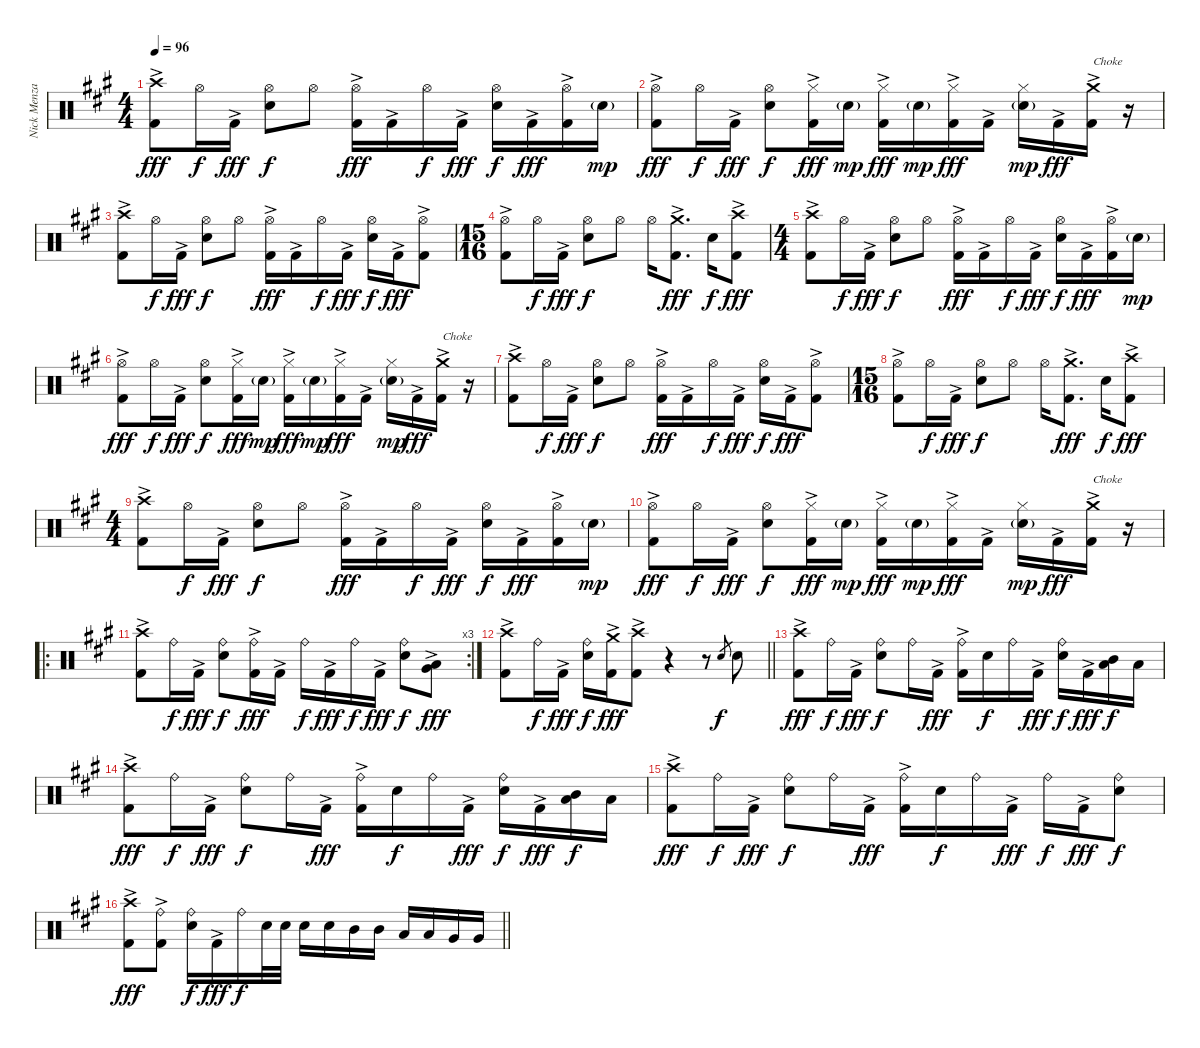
\track ("Nick Menza" "Nick Menza") {instrument percussion}
\staff {score}
\articulation defaults
\ts (4 4)
\tempo 96
\clef neutral
\ks f#minor
("Crash high (hit)" "Kick (hit) 2"{ac}).8{dy fff} "Hi-Hat (open)".16{dy f} "Kick (hit) 2"{ac}.16{dy fff} ("Hi-Hat (open)" "Snare (hit) 2").8{dy f} "Hi-Hat (open)".8 ("Hi-Hat (open)" "Kick (hit) 2"{ac}).16{dy fff} "Kick (hit) 2"{ac}.16 "Hi-Hat (open)".16{dy f} "Kick (hit) 2"{ac}.16{dy fff} ("Hi-Hat (open)" "Snare (hit) 2").16{dy f} "Kick (hit) 2"{ac}.16{dy fff} ("Hi-Hat (open)" "Kick (hit) 2"{ac}).16 "Snare (hit) 2"{g}.16{dy mp} |
("Hi-Hat (open)" "Kick (hit) 2"{ac}).8{dy fff} "Hi-Hat (open)".16{dy f} "Kick (hit) 2"{ac}.16{dy fff} ("Hi-Hat (open)" "Snare (hit) 2").8{dy f} ("Hi-Hat (closed)" "Kick (hit) 2"{ac}).16{dy fff} "Snare (hit) 2"{g}.16{dy mp} ("Hi-Hat (closed)" "Kick (hit) 2"{ac}).16{dy fff} "Snare (hit) 2"{g}.16{dy mp} ("Hi-Hat (closed)" "Kick (hit) 2"{ac}).16{dy fff} "Kick (hit) 2"{ac}.16 ("Hi-Hat (closed)" "Snare (hit) 2"{g}).16{dy mp} "Kick (hit) 2"{ac}.16{dy fff} ("Crash medium (hit)" "Kick (hit) 2"{ac}).16{txt "Choke"} r.16 |
("Crash high (hit)" "Kick (hit) 2"{ac}).8 "Hi-Hat (open)".16{dy f} "Kick (hit) 2"{ac}.16{dy fff} ("Hi-Hat (open)" "Snare (hit) 2").8{dy f} "Hi-Hat (open)".8 ("Hi-Hat (open)" "Kick (hit) 2"{ac}).16{dy fff} "Kick (hit) 2"{ac}.16 "Hi-Hat (open)".16{dy f} "Kick (hit) 2"{ac}.16{dy fff} ("Hi-Hat (open)" "Snare (hit) 2").16{dy f} "Kick (hit) 2"{ac}.16{dy fff} ("Hi-Hat (open)" "Kick (hit) 2"{ac}).8 |
\ts (15 16)
("Hi-Hat (open)" "Kick (hit) 2"{ac}).8 "Hi-Hat (open)".16{dy f} "Kick (hit) 2"{ac}.16{dy fff} ("Hi-Hat (open)" "Snare (hit) 2").8{dy f} "Hi-Hat (open)".8 "Hi-Hat (open)".16 ("Crash medium (hit)" "Kick (hit) 2"{ac}).8{d dy fff} "Snare (hit) 2".16{dy f} ("Crash high (hit)" "Kick (hit) 2"{ac}).8{dy fff} |
\ts (4 4)
("Crash high (hit)" "Kick (hit) 2"{ac}).8 "Hi-Hat (open)".16{dy f} "Kick (hit) 2"{ac}.16{dy fff} ("Hi-Hat (open)" "Snare (hit) 2").8{dy f} "Hi-Hat (open)".8 ("Hi-Hat (open)" "Kick (hit) 2"{ac}).16{dy fff} "Kick (hit) 2"{ac}.16 "Hi-Hat (open)".16{dy f} "Kick (hit) 2"{ac}.16{dy fff} ("Hi-Hat (open)" "Snare (hit) 2").16{dy f} "Kick (hit) 2"{ac}.16{dy fff} ("Hi-Hat (open)" "Kick (hit) 2"{ac}).16 "Snare (hit) 2"{g}.16{dy mp} |
("Hi-Hat (open)" "Kick (hit) 2"{ac}).8{dy fff} "Hi-Hat (open)".16{dy f} "Kick (hit) 2"{ac}.16{dy fff} ("Hi-Hat (open)" "Snare (hit) 2").8{dy f} ("Hi-Hat (closed)" "Kick (hit) 2"{ac}).16{dy fff} "Snare (hit) 2"{g}.16{dy mp} ("Hi-Hat (closed)" "Kick (hit) 2"{ac}).16{dy fff} "Snare (hit) 2"{g}.16{dy mp} ("Hi-Hat (closed)" "Kick (hit) 2"{ac}).16{dy fff} "Kick (hit) 2"{ac}.16 ("Hi-Hat (closed)" "Snare (hit) 2"{g}).16{dy mp} "Kick (hit) 2"{ac}.16{dy fff} ("Crash medium (hit)" "Kick (hit) 2"{ac}).16{txt "Choke"} r.16 |
("Crash high (hit)" "Kick (hit) 2"{ac}).8 "Hi-Hat (open)".16{dy f} "Kick (hit) 2"{ac}.16{dy fff} ("Hi-Hat (open)" "Snare (hit) 2").8{dy f} "Hi-Hat (open)".8 ("Hi-Hat (open)" "Kick (hit) 2"{ac}).16{dy fff} "Kick (hit) 2"{ac}.16 "Hi-Hat (open)".16{dy f} "Kick (hit) 2"{ac}.16{dy fff} ("Hi-Hat (open)" "Snare (hit) 2").16{dy f} "Kick (hit) 2"{ac}.16{dy fff} ("Hi-Hat (open)" "Kick (hit) 2"{ac}).8 |
\ts (15 16)
("Hi-Hat (open)" "Kick (hit) 2"{ac}).8 "Hi-Hat (open)".16{dy f} "Kick (hit) 2"{ac}.16{dy fff} ("Hi-Hat (open)" "Snare (hit) 2").8{dy f} "Hi-Hat (open)".8 "Hi-Hat (open)".16 ("Crash medium (hit)" "Kick (hit) 2"{ac}).8{d dy fff} "Snare (hit) 2".16{dy f} ("Crash high (hit)" "Kick (hit) 2"{ac}).8{dy fff} |
\ts (4 4)
("Crash high (hit)" "Kick (hit) 2"{ac}).8 "Hi-Hat (open)".16{dy f} "Kick (hit) 2"{ac}.16{dy fff} ("Hi-Hat (open)" "Snare (hit) 2").8{dy f} "Hi-Hat (open)".8 ("Hi-Hat (open)" "Kick (hit) 2"{ac}).16{dy fff} "Kick (hit) 2"{ac}.16 "Hi-Hat (open)".16{dy f} "Kick (hit) 2"{ac}.16{dy fff} ("Hi-Hat (open)" "Snare (hit) 2").16{dy f} "Kick (hit) 2"{ac}.16{dy fff} ("Hi-Hat (open)" "Kick (hit) 2"{ac}).16 "Snare (hit) 2"{g}.16{dy mp} |
("Hi-Hat (open)" "Kick (hit) 2"{ac}).8{dy fff} "Hi-Hat (open)".16{dy f} "Kick (hit) 2"{ac}.16{dy fff} ("Hi-Hat (open)" "Snare (hit) 2").8{dy f} ("Hi-Hat (closed)" "Kick (hit) 2"{ac}).16{dy fff} "Snare (hit) 2"{g}.16{dy mp} ("Hi-Hat (closed)" "Kick (hit) 2"{ac}).16{dy fff} "Snare (hit) 2"{g}.16{dy mp} ("Hi-Hat (closed)" "Kick (hit) 2"{ac}).16{dy fff} "Kick (hit) 2"{ac}.16 ("Hi-Hat (closed)" "Snare (hit) 2"{g}).16{dy mp} "Kick (hit) 2"{ac}.16{dy fff} ("Crash medium (hit)" "Kick (hit) 2"{ac}).16{txt "Choke"} r.16 |
\ro
\rc 3
("Crash high (hit)" "Kick (hit) 2"{ac}).8 "Ride (bell)".16{dy f} "Kick (hit) 2"{ac}.16{dy fff} ("Ride (bell)" "Snare (hit) 2").8{dy f} ("Ride (bell)" "Kick (hit) 2"{ac}).16{dy fff} "Kick (hit) 2"{ac}.16 "Ride (bell)".16{dy f} "Kick (hit) 2"{ac}.16{dy fff} "Ride (bell)".16{dy f} "Kick (hit) 2"{ac}.16{dy fff} ("Ride (bell)" "Snare (hit) 2").8{dy f} ("Low Tom (hit)"{ac} "Very Low Tom (hit)"{ac}).8{dy fff} |
\barLineRight lightlight
("Crash high (hit)" "Kick (hit) 2"{ac}).8 "Ride (bell)".16{dy f} "Kick (hit) 2"{ac}.16{dy fff} ("Ride (bell)" "Snare (hit) 2").16{dy f} ("Crash medium (hit)" "Kick (hit) 2"{ac}).16{dy fff} ("Crash high (hit)" "Kick (hit) 2"{ac}).8 r.4 r.8 "Snare (hit) 2".8{gr dy f} "Snare (hit) 2".8 |
("Crash high (hit)" "Kick (hit) 2"{ac}).8{dy fff} "Ride (bell)".16{dy f} "Kick (hit) 2"{ac}.16{dy fff} ("Ride (bell)" "Snare (hit) 2").8{dy f} "Ride (bell)".16 "Kick (hit) 2"{ac}.16{dy fff} ("Ride (bell)" "Kick (hit) 2"{ac}).16 "Snare (hit) 2".16{dy f} "Ride (bell)".16 "Kick (hit) 2"{ac}.16{dy fff} ("Ride (bell)" "Snare (hit) 2").16{dy f} "Kick (hit) 2"{ac}.16{dy fff} ("Mid Tom (hit)" "Low Tom (hit)").16{dy f} "Low Tom (hit)".16 |
("Crash high (hit)" "Kick (hit) 2"{ac}).8{dy fff} "Ride (bell)".16{dy f} "Kick (hit) 2"{ac}.16{dy fff} ("Ride (bell)" "Snare (hit) 2").8{dy f} "Ride (bell)".16 "Kick (hit) 2"{ac}.16{dy fff} ("Ride (bell)" "Kick (hit) 2"{ac}).16 "Snare (hit) 2".16{dy f} "Ride (bell)".16 "Kick (hit) 2"{ac}.16{dy fff} ("Ride (bell)" "Snare (hit) 2").16{dy f} "Kick (hit) 2"{ac}.16{dy fff} ("Mid Tom (hit)" "Low Tom (hit)").16{dy f} "Low Tom (hit)".16 |
("Crash high (hit)" "Kick (hit) 2"{ac}).8{dy fff} "Ride (bell)".16{dy f} "Kick (hit) 2"{ac}.16{dy fff} ("Ride (bell)" "Snare (hit) 2").8{dy f} "Ride (bell)".16 "Kick (hit) 2"{ac}.16{dy fff} ("Ride (bell)" "Kick (hit) 2"{ac}).16 "Snare (hit) 2".16{dy f} "Ride (bell)".16 "Kick (hit) 2"{ac}.16{dy fff} "Ride (bell)".16{dy f} "Kick (hit) 2"{ac}.16{dy fff} ("Ride (bell)" "Snare (hit) 2").8{dy f} |
\barLineRight lightlight
("Crash high (hit)" "Kick (hit) 2"{ac}).8{dy fff} ("Ride (bell)" "Kick (hit) 2"{ac}).8 ("Ride (bell)" "Snare (hit) 2").16{dy f} "Kick (hit) 2"{ac}.16{dy fff} "Ride (bell)".16{dy f} "Snare (hit) 2".32 "Snare (hit) 2".32 "Snare (hit) 2".16 "Snare (hit) 2".16 "Mid Tom (hit)".16 "Mid Tom (hit)".16 "Low Tom (hit)".16 "Low Tom (hit)".16 "Very Low Tom (hit)".16 "Very Low Tom (hit)".16
